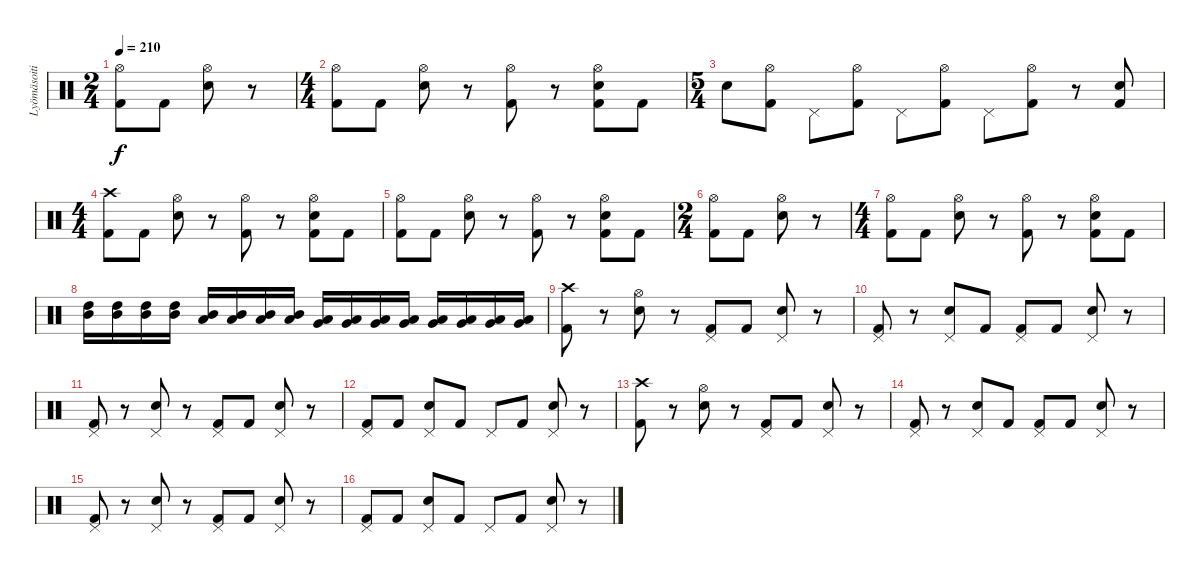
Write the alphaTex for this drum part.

\track ("Lyömäsoitin" "Lyömäsoiti") {instrument percussion}
\staff {score}
\articulation defaults
\ts (2 4)
\tempo 210
\clef neutral
\ks c
("Hi-Hat (open)" "Kick (hit) 2").8{dy f} "Kick (hit) 2".8 ("Hi-Hat (open)" "Electric Snare (hit)").8 r.8 |
\ts (4 4)
("Hi-Hat (open)" "Kick (hit) 2").8 "Kick (hit) 2".8 ("Hi-Hat (open)" "Electric Snare (hit)").8 r.8 ("Hi-Hat (open)" "Kick (hit) 2").8 r.8 ("Hi-Hat (open)" "Electric Snare (hit)" "Kick (hit) 2").8 "Kick (hit) 2".8 |
\ts (5 4)
"Electric Snare (hit)".8 ("Hi-Hat (open)" "Kick (hit) 2").8 "Pedal Hi-Hat (hit)".8 ("Hi-Hat (open)" "Kick (hit) 2").8 "Pedal Hi-Hat (hit)".8 ("Hi-Hat (open)" "Kick (hit) 2").8 "Pedal Hi-Hat (hit)".8 ("Hi-Hat (open)" "Kick (hit) 2").8 r.8 ("Electric Snare (hit)" "Kick (hit) 2").8 |
\ts (4 4)
("Crash high (hit)" "Kick (hit) 2").8 "Kick (hit) 2".8 ("Hi-Hat (open)" "Electric Snare (hit)").8 r.8 ("Hi-Hat (open)" "Kick (hit) 2").8 r.8 ("Hi-Hat (open)" "Electric Snare (hit)" "Kick (hit) 2").8 "Kick (hit) 2".8 |
("Hi-Hat (open)" "Kick (hit) 2").8 "Kick (hit) 2".8 ("Hi-Hat (open)" "Electric Snare (hit)").8 r.8 ("Hi-Hat (open)" "Kick (hit) 2").8 r.8 ("Hi-Hat (open)" "Electric Snare (hit)" "Kick (hit) 2").8 "Kick (hit) 2".8 |
\ts (2 4)
("Hi-Hat (open)" "Kick (hit) 2").8 "Kick (hit) 2".8 ("Hi-Hat (open)" "Electric Snare (hit)").8 r.8 |
\ts (4 4)
("Hi-Hat (open)" "Kick (hit) 2").8 "Kick (hit) 2".8 ("Hi-Hat (open)" "Electric Snare (hit)").8 r.8 ("Hi-Hat (open)" "Kick (hit) 2").8 r.8 ("Hi-Hat (open)" "Electric Snare (hit)" "Kick (hit) 2").8 "Kick (hit) 2".8 |
("High Tom (hit)" "Mid Tom (hit)").16 ("High Tom (hit)" "Mid Tom (hit)").16 ("High Tom (hit)" "Mid Tom (hit)").16 ("High Tom (hit)" "Mid Tom (hit)").16 ("Mid Tom (hit)" "Low Tom (hit)").16 ("Mid Tom (hit)" "Low Tom (hit)").16 ("Mid Tom (hit)" "Low Tom (hit)").16 ("Mid Tom (hit)" "Low Tom (hit)").16 ("Low Tom (hit)" "Very Low Tom (hit)").16 ("Low Tom (hit)" "Very Low Tom (hit)").16 ("Low Tom (hit)" "Very Low Tom (hit)").16 ("Low Tom (hit)" "Very Low Tom (hit)").16 ("Very Low Tom (hit)" "Low Floor Tom (hit)").16 ("Very Low Tom (hit)" "Low Floor Tom (hit)").16 ("Very Low Tom (hit)" "Low Floor Tom (hit)").16 ("Very Low Tom (hit)" "Low Floor Tom (hit)").16 |
("Crash high (hit)" "Kick (hit) 2").8 r.8 ("Hi-Hat (open)" "Electric Snare (hit)").8 r.8 ("Pedal Hi-Hat (hit)" "Kick (hit) 2").8 "Kick (hit) 2".8 ("Pedal Hi-Hat (hit)" "Electric Snare (hit)").8 r.8 |
("Pedal Hi-Hat (hit)" "Kick (hit) 2").8 r.8 ("Pedal Hi-Hat (hit)" "Electric Snare (hit)").8 "Kick (hit) 2".8 ("Pedal Hi-Hat (hit)" "Kick (hit) 2").8 "Kick (hit) 2".8 ("Pedal Hi-Hat (hit)" "Electric Snare (hit)").8 r.8 |
("Pedal Hi-Hat (hit)" "Kick (hit) 2").8 r.8 ("Pedal Hi-Hat (hit)" "Electric Snare (hit)").8 r.8 ("Pedal Hi-Hat (hit)" "Kick (hit) 2").8 "Kick (hit) 2".8 ("Pedal Hi-Hat (hit)" "Electric Snare (hit)").8 r.8 |
("Pedal Hi-Hat (hit)" "Kick (hit) 2").8 "Kick (hit) 2".8 ("Pedal Hi-Hat (hit)" "Electric Snare (hit)").8 "Kick (hit) 2".8 "Pedal Hi-Hat (hit)".8 "Kick (hit) 2".8 ("Pedal Hi-Hat (hit)" "Electric Snare (hit)").8 r.8 |
("Crash high (hit)" "Kick (hit) 2").8 r.8 ("Hi-Hat (open)" "Electric Snare (hit)").8 r.8 ("Pedal Hi-Hat (hit)" "Kick (hit) 2").8 "Kick (hit) 2".8 ("Pedal Hi-Hat (hit)" "Electric Snare (hit)").8 r.8 |
("Pedal Hi-Hat (hit)" "Kick (hit) 2").8 r.8 ("Pedal Hi-Hat (hit)" "Electric Snare (hit)").8 "Kick (hit) 2".8 ("Pedal Hi-Hat (hit)" "Kick (hit) 2").8 "Kick (hit) 2".8 ("Pedal Hi-Hat (hit)" "Electric Snare (hit)").8 r.8 |
("Pedal Hi-Hat (hit)" "Kick (hit) 2").8 r.8 ("Pedal Hi-Hat (hit)" "Electric Snare (hit)").8 r.8 ("Pedal Hi-Hat (hit)" "Kick (hit) 2").8 "Kick (hit) 2".8 ("Pedal Hi-Hat (hit)" "Electric Snare (hit)").8 r.8 |
("Pedal Hi-Hat (hit)" "Kick (hit) 2").8 "Kick (hit) 2".8 ("Pedal Hi-Hat (hit)" "Electric Snare (hit)").8 "Kick (hit) 2".8 "Pedal Hi-Hat (hit)".8 "Kick (hit) 2".8 ("Pedal Hi-Hat (hit)" "Electric Snare (hit)").8 r.8
